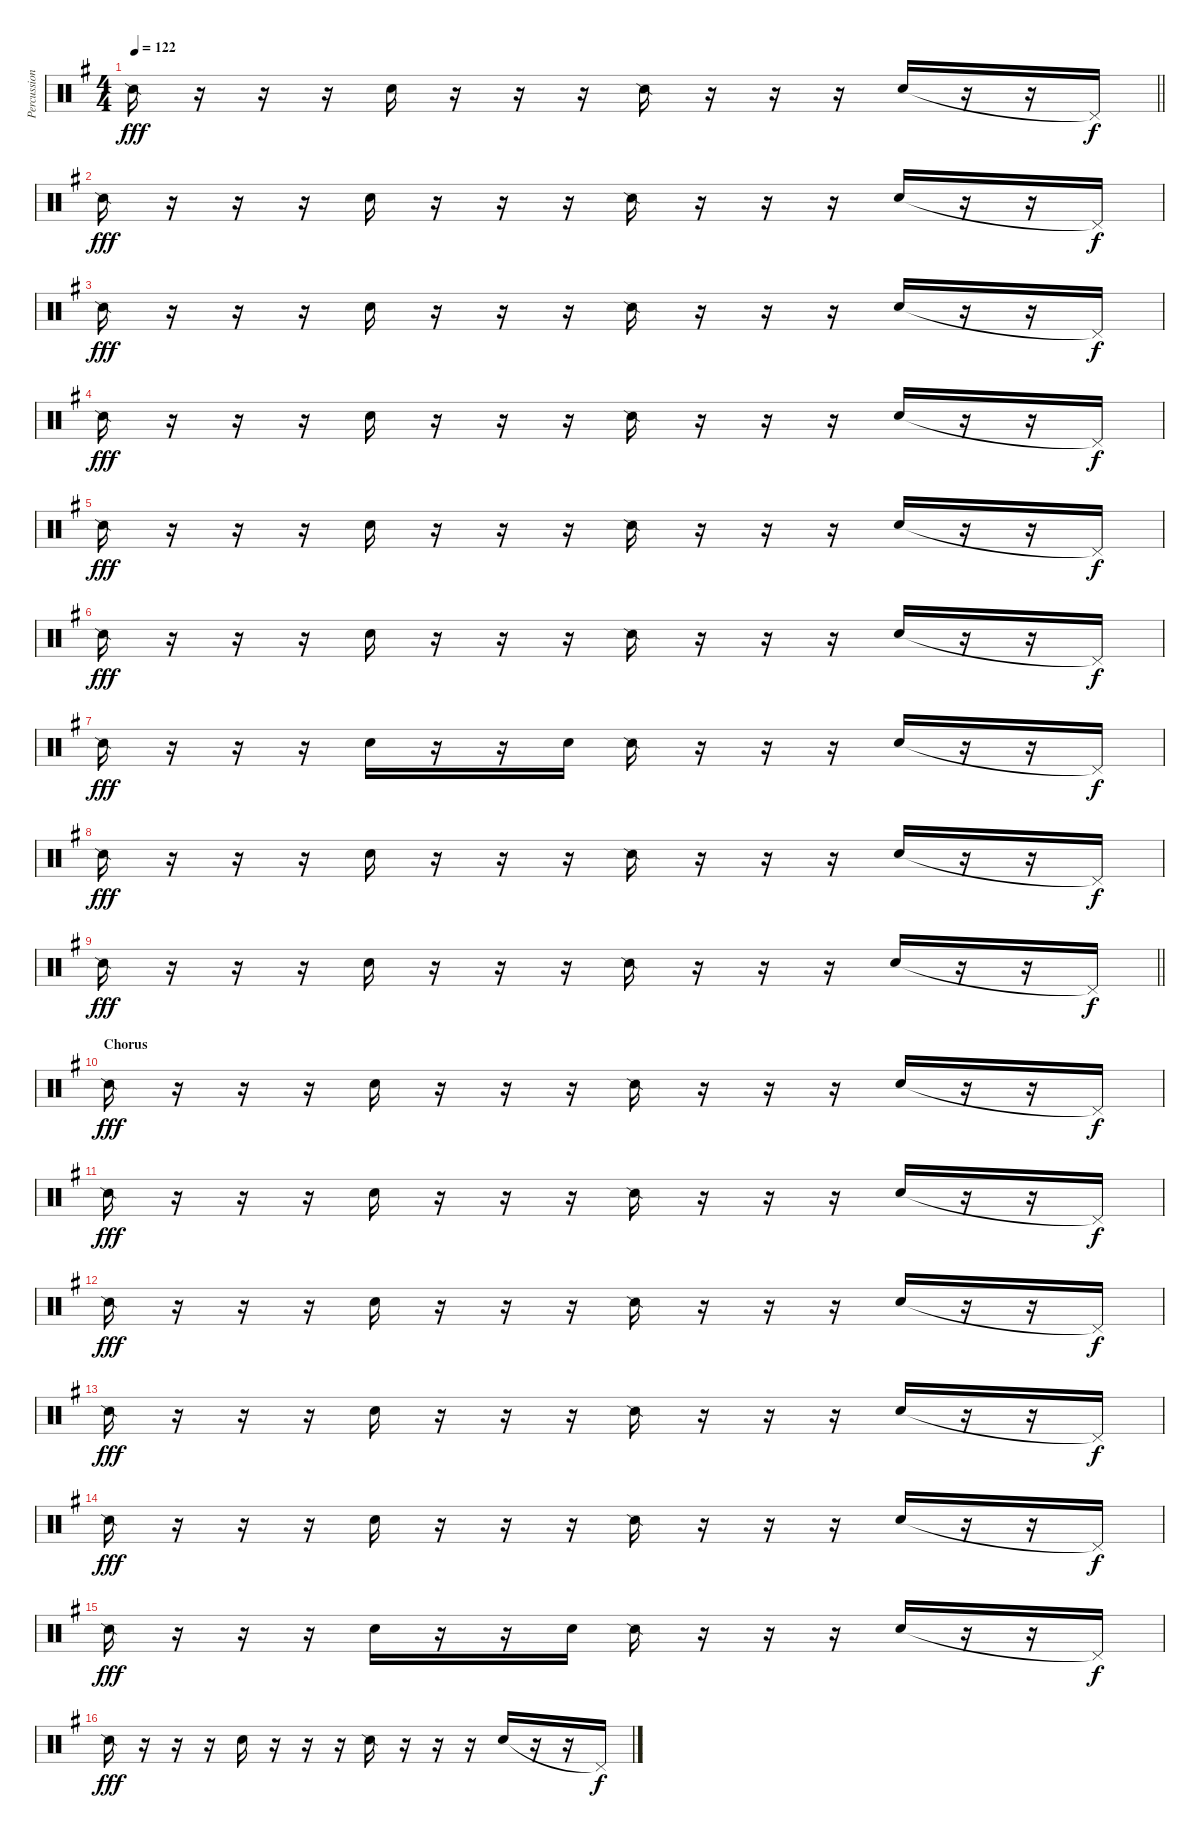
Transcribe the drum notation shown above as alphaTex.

\track ("Percussion" "Percussion") {instrument percussion}
\staff {score}
\articulation defaults
\ts (4 4)
\tempo 122
\clef neutral
\barLineRight lightlight
\ks g "Snare (side stick) 2".16{dy fff}
r.16 r.16 r.16 "Hand Clap (hit)".16 r.16 r.16 r.16 "Snare (side stick) 2".16 r.16 r.16 r.16 "Hand Clap (hit)".16 r.16 r.16 "Pedal Hi-Hat (hit)"{t}.16{dy f} |
"Snare (side stick) 2".16{dy fff} r.16 r.16 r.16 "Hand Clap (hit)".16 r.16 r.16 r.16 "Snare (side stick) 2".16 r.16 r.16 r.16 "Hand Clap (hit)".16 r.16 r.16 "Pedal Hi-Hat (hit)"{t}.16{dy f} |
"Snare (side stick) 2".16{dy fff} r.16 r.16 r.16 "Hand Clap (hit)".16 r.16 r.16 r.16 "Snare (side stick) 2".16 r.16 r.16 r.16 "Hand Clap (hit)".16 r.16 r.16 "Pedal Hi-Hat (hit)"{t}.16{dy f} |
"Snare (side stick) 2".16{dy fff} r.16 r.16 r.16 "Hand Clap (hit)".16 r.16 r.16 r.16 "Snare (side stick) 2".16 r.16 r.16 r.16 "Hand Clap (hit)".16 r.16 r.16 "Pedal Hi-Hat (hit)"{t}.16{dy f} |
"Snare (side stick) 2".16{dy fff} r.16 r.16 r.16 "Hand Clap (hit)".16 r.16 r.16 r.16 "Snare (side stick) 2".16 r.16 r.16 r.16 "Hand Clap (hit)".16 r.16 r.16 "Pedal Hi-Hat (hit)"{t}.16{dy f} |
"Snare (side stick) 2".16{dy fff} r.16 r.16 r.16 "Hand Clap (hit)".16 r.16 r.16 r.16 "Snare (side stick) 2".16 r.16 r.16 r.16 "Hand Clap (hit)".16 r.16 r.16 "Pedal Hi-Hat (hit)"{t}.16{dy f} |
"Snare (side stick) 2".16{dy fff} r.16 r.16 r.16 "Hand Clap (hit)".16 r.16 r.16 "Hand Clap (hit)".16 "Snare (side stick) 2".16 r.16 r.16 r.16 "Hand Clap (hit)".16 r.16 r.16 "Pedal Hi-Hat (hit)"{t}.16{dy f} |
"Snare (side stick) 2".16{dy fff} r.16 r.16 r.16 "Hand Clap (hit)".16 r.16 r.16 r.16 "Snare (side stick) 2".16 r.16 r.16 r.16 "Hand Clap (hit)".16 r.16 r.16 "Pedal Hi-Hat (hit)"{t}.16{dy f} |
\barLineRight lightlight "Snare (side stick) 2".16{dy fff}
r.16 r.16 r.16 "Hand Clap (hit)".16 r.16 r.16 r.16 "Snare (side stick) 2".16 r.16 r.16 r.16 "Hand Clap (hit)".16 r.16 r.16 "Pedal Hi-Hat (hit)"{t}.16{dy f} |
\section ("" "Chorus")
"Snare (side stick) 2".16{dy fff} r.16 r.16 r.16 "Hand Clap (hit)".16 r.16 r.16 r.16 "Snare (side stick) 2".16 r.16 r.16 r.16 "Hand Clap (hit)".16 r.16 r.16 "Pedal Hi-Hat (hit)"{t}.16{dy f} |
"Snare (side stick) 2".16{dy fff} r.16 r.16 r.16 "Hand Clap (hit)".16 r.16 r.16 r.16 "Snare (side stick) 2".16 r.16 r.16 r.16 "Hand Clap (hit)".16 r.16 r.16 "Pedal Hi-Hat (hit)"{t}.16{dy f} |
"Snare (side stick) 2".16{dy fff} r.16 r.16 r.16 "Hand Clap (hit)".16 r.16 r.16 r.16 "Snare (side stick) 2".16 r.16 r.16 r.16 "Hand Clap (hit)".16 r.16 r.16 "Pedal Hi-Hat (hit)"{t}.16{dy f} |
"Snare (side stick) 2".16{dy fff} r.16 r.16 r.16 "Hand Clap (hit)".16 r.16 r.16 r.16 "Snare (side stick) 2".16 r.16 r.16 r.16 "Hand Clap (hit)".16 r.16 r.16 "Pedal Hi-Hat (hit)"{t}.16{dy f} |
"Snare (side stick) 2".16{dy fff} r.16 r.16 r.16 "Hand Clap (hit)".16 r.16 r.16 r.16 "Snare (side stick) 2".16 r.16 r.16 r.16 "Hand Clap (hit)".16 r.16 r.16 "Pedal Hi-Hat (hit)"{t}.16{dy f} |
"Snare (side stick) 2".16{dy fff} r.16 r.16 r.16 "Hand Clap (hit)".16 r.16 r.16 "Hand Clap (hit)".16 "Snare (side stick) 2".16 r.16 r.16 r.16 "Hand Clap (hit)".16 r.16 r.16 "Pedal Hi-Hat (hit)"{t}.16{dy f} |
"Snare (side stick) 2".16{dy fff} r.16 r.16 r.16 "Hand Clap (hit)".16 r.16 r.16 r.16 "Snare (side stick) 2".16 r.16 r.16 r.16 "Hand Clap (hit)".16 r.16 r.16 "Pedal Hi-Hat (hit)"{t}.16{dy f}
